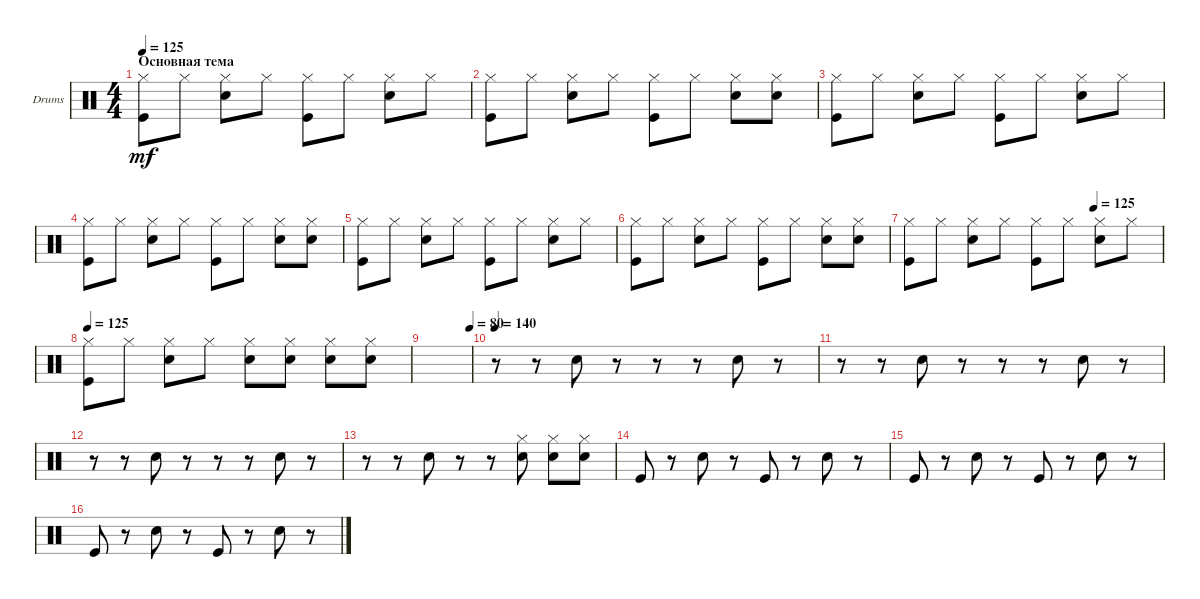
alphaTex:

\defaultSystemsLayout 4
\bracketExtendMode groupsimilarinstruments
\firstSystemTrackNameOrientation horizontal
\otherSystemsTrackNameOrientation horizontal
\track ("Drumkit" "Drums") {instrument percussion}
\staff {score}
\articulation defaults
\ts (4 4)
\section ("" "Основная тема")
\tempo 125
\clef neutral
\ks c
("Hi-Hat (closed)" "Kick (hit)").8{dy mf} "Hi-Hat (closed)".8 ("Hi-Hat (closed)" "Snare (hit) 2").8 "Hi-Hat (closed)".8 ("Hi-Hat (closed)" "Kick (hit)").8 "Hi-Hat (closed)".8 ("Hi-Hat (closed)" "Snare (hit) 2").8 "Hi-Hat (closed)".8 |
("Hi-Hat (closed)" "Kick (hit)").8 "Hi-Hat (closed)".8 ("Hi-Hat (closed)" "Snare (hit) 2").8 "Hi-Hat (closed)".8 ("Hi-Hat (closed)" "Kick (hit)").8 "Hi-Hat (closed)".8 ("Hi-Hat (closed)" "Snare (hit) 2").8 ("Hi-Hat (closed)" "Snare (hit) 2").8 |
("Hi-Hat (closed)" "Kick (hit)").8 "Hi-Hat (closed)".8 ("Hi-Hat (closed)" "Snare (hit) 2").8 "Hi-Hat (closed)".8 ("Hi-Hat (closed)" "Kick (hit)").8 "Hi-Hat (closed)".8 ("Hi-Hat (closed)" "Snare (hit) 2").8 "Hi-Hat (closed)".8 |
("Hi-Hat (closed)" "Kick (hit)").8 "Hi-Hat (closed)".8 ("Hi-Hat (closed)" "Snare (hit) 2").8 "Hi-Hat (closed)".8 ("Hi-Hat (closed)" "Kick (hit)").8 "Hi-Hat (closed)".8 ("Hi-Hat (closed)" "Snare (hit) 2").8 ("Hi-Hat (closed)" "Snare (hit) 2").8 |
("Hi-Hat (closed)" "Kick (hit)").8 "Hi-Hat (closed)".8 ("Hi-Hat (closed)" "Snare (hit) 2").8 "Hi-Hat (closed)".8 ("Hi-Hat (closed)" "Kick (hit)").8 "Hi-Hat (closed)".8 ("Hi-Hat (closed)" "Snare (hit) 2").8 "Hi-Hat (closed)".8 |
("Hi-Hat (closed)" "Kick (hit)").8 "Hi-Hat (closed)".8 ("Hi-Hat (closed)" "Snare (hit) 2").8 "Hi-Hat (closed)".8 ("Hi-Hat (closed)" "Kick (hit)").8 "Hi-Hat (closed)".8 ("Hi-Hat (closed)" "Snare (hit) 2").8 ("Hi-Hat (closed)" "Snare (hit) 2").8 |
\tempo (125 0.732558)
("Hi-Hat (closed)" "Kick (hit)").8 "Hi-Hat (closed)".8 ("Hi-Hat (closed)" "Snare (hit) 2").8 "Hi-Hat (closed)".8 ("Hi-Hat (closed)" "Kick (hit)").8 "Hi-Hat (closed)".8 ("Hi-Hat (closed)" "Snare (hit) 2").8 "Hi-Hat (closed)".8 |
\tempo 125
("Hi-Hat (closed)" "Kick (hit)").8 "Hi-Hat (closed)".8 ("Hi-Hat (closed)" "Snare (hit) 2").8 "Hi-Hat (closed)".8 ("Hi-Hat (closed)" "Snare (hit) 2").8 ("Hi-Hat (closed)" "Snare (hit) 2").8 ("Hi-Hat (closed)" "Snare (hit) 2").8 ("Hi-Hat (closed)" "Snare (hit) 2").8 |
\tempo (80 0.976744)
|
\tempo 140
r.8 r.8 "Snare (hit) 2".8 r.8 r.8 r.8 "Snare (hit) 2".8 r.8 |
r.8 r.8 "Snare (hit) 2".8 r.8 r.8 r.8 "Snare (hit) 2".8 r.8 |
r.8 r.8 "Snare (hit) 2".8 r.8 r.8 r.8 "Snare (hit) 2".8 r.8 |
r.8 r.8 "Snare (hit) 2".8 r.8 r.8 ("Snare (hit) 2" "Hi-Hat (closed)").8 ("Snare (hit) 2" "Hi-Hat (closed)").8 ("Snare (hit) 2" "Hi-Hat (closed)").8 |
"Kick (hit)".8 r.8 "Snare (hit) 2".8 r.8 "Kick (hit)".8 r.8 "Snare (hit) 2".8 r.8 |
"Kick (hit)".8 r.8 "Snare (hit) 2".8 r.8 "Kick (hit)".8 r.8 "Snare (hit) 2".8 r.8 |
"Kick (hit)".8 r.8 "Snare (hit) 2".8 r.8 "Kick (hit)".8 r.8 "Snare (hit) 2".8 r.8
